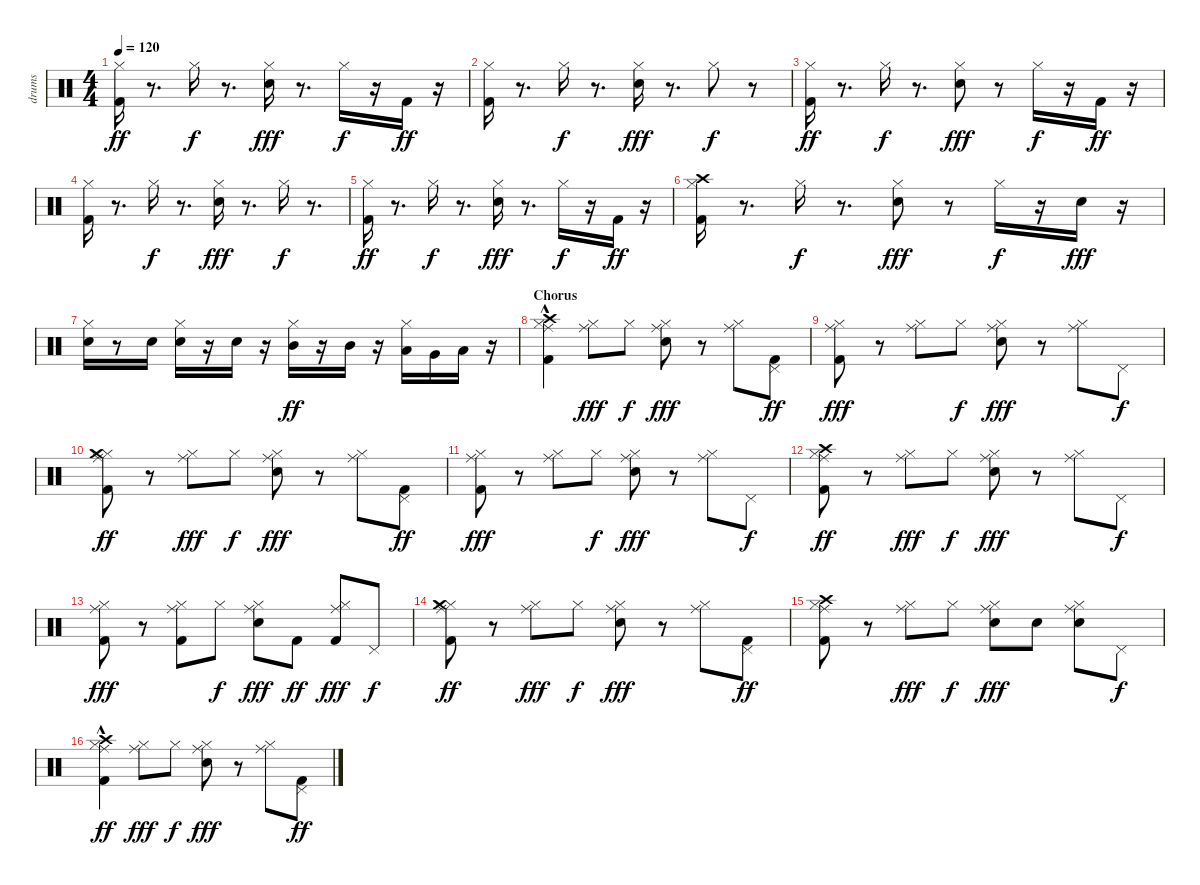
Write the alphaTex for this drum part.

\track ("drums" "drums") {instrument percussion}
\staff {score}
\articulation defaults
\ts (4 4)
\tempo 120
\clef neutral
\ks c
("Kick (hit) 2" "Hi-Hat (closed)").16{dy ff} r.8{d} "Hi-Hat (closed)".16{dy f} r.8{d} ("Snare (hit) 2" "Hi-Hat (closed)").16{dy fff} r.8{d} "Hi-Hat (closed)".16{dy f} r.16 "Kick (hit) 2".16{dy ff} r.16 |
("Kick (hit) 2" "Hi-Hat (closed)").16 r.8{d} "Hi-Hat (closed)".16{dy f} r.8{d} ("Snare (hit) 2" "Hi-Hat (closed)").16{dy fff} r.8{d} "Hi-Hat (closed)".8{dy f} r.8 |
("Kick (hit) 2" "Hi-Hat (closed)").16{dy ff} r.8{d} "Hi-Hat (closed)".16{dy f} r.8{d} ("Snare (hit) 2" "Hi-Hat (closed)").8{dy fff} r.8 "Hi-Hat (closed)".16{dy f} r.16 "Kick (hit) 2".16{dy ff} r.16 |
("Kick (hit) 2" "Hi-Hat (closed)").16 r.8{d} "Hi-Hat (closed)".16{dy f} r.8{d} ("Snare (hit) 2" "Hi-Hat (closed)").16{dy fff} r.8{d} "Hi-Hat (closed)".16{dy f} r.8{d} |
("Kick (hit) 2" "Hi-Hat (closed)").16{dy ff} r.8{d} "Hi-Hat (closed)".16{dy f} r.8{d} ("Snare (hit) 2" "Hi-Hat (closed)").16{dy fff} r.8{d} "Hi-Hat (closed)".16{dy f} r.16 "Kick (hit) 2".16{dy ff} r.16 |
("Kick (hit) 2" "Hi-Hat (closed)" "Crash high (hit)").16 r.8{d} "Hi-Hat (closed)".16{dy f} r.8{d} ("Snare (hit) 2" "Hi-Hat (closed)").8{dy fff} r.8 "Hi-Hat (closed)".16{dy f} r.16 "Snare (hit) 2".16{dy fff} r.16 |
("Snare (hit) 2" "Hi-Hat (closed)").16 r.8 "Snare (hit) 2".16 ("Snare (hit) 2" "Hi-Hat (closed)").16 r.16 "Snare (hit) 2".16 r.16 ("Hi-Hat (closed)" "Mid Tom (hit)").16{dy ff} r.16 "Mid Tom (hit)".16 r.16 ("Hi-Hat (closed)" "Low Tom (hit)").16 "Very Low Tom (hit)".16 "Low Floor Tom (hit)".16 r.16 |
\section ("" "Chorus")
("Kick (hit) 2" "Hi-Hat (closed)" "Ride (middle)" "Crash high (hit)"{hac}).4 ("Hi-Hat (closed)" "Ride (middle)").8{dy fff} "Hi-Hat (closed)".8{dy f} ("Snare (hit) 2" "Hi-Hat (closed)" "Ride (middle)").8{dy fff} r.8 ("Hi-Hat (closed)" "Ride (middle)").8 ("Kick (hit) 2" "Pedal Hi-Hat (hit)").8{dy ff} |
("Kick (hit) 2" "Hi-Hat (closed)" "Ride (middle)").8{dy fff} r.8 ("Hi-Hat (closed)" "Ride (middle)").8 "Hi-Hat (closed)".8{dy f} ("Snare (hit) 2" "Hi-Hat (closed)" "Ride (middle)").8{dy fff} r.8 ("Hi-Hat (closed)" "Ride (middle)").8 "Pedal Hi-Hat (hit)".8{dy f} |
("Kick (hit) 2" "Hi-Hat (closed)" "Ride (middle)" "Crash medium (hit)").8{dy ff} r.8 ("Hi-Hat (closed)" "Ride (middle)").8{dy fff} "Hi-Hat (closed)".8{dy f} ("Snare (hit) 2" "Hi-Hat (closed)" "Ride (middle)").8{dy fff} r.8 ("Hi-Hat (closed)" "Ride (middle)").8 ("Kick (hit) 2" "Pedal Hi-Hat (hit)").8{dy ff} |
("Kick (hit) 2" "Hi-Hat (closed)" "Ride (middle)").8{dy fff} r.8 ("Hi-Hat (closed)" "Ride (middle)").8 "Hi-Hat (closed)".8{dy f} ("Snare (hit) 2" "Hi-Hat (closed)" "Ride (middle)").8{dy fff} r.8 ("Hi-Hat (closed)" "Ride (middle)").8 "Pedal Hi-Hat (hit)".8{dy f} |
("Kick (hit) 2" "Hi-Hat (closed)" "Ride (middle)" "Crash high (hit)").8{dy ff} r.8 ("Hi-Hat (closed)" "Ride (middle)").8{dy fff} "Hi-Hat (closed)".8{dy f} ("Snare (hit) 2" "Hi-Hat (closed)" "Ride (middle)").8{dy fff} r.8 ("Hi-Hat (closed)" "Ride (middle)").8 "Pedal Hi-Hat (hit)".8{dy f} |
("Kick (hit) 2" "Hi-Hat (closed)" "Ride (middle)").8{dy fff} r.8 ("Kick (hit) 2" "Hi-Hat (closed)" "Ride (middle)").8 "Hi-Hat (closed)".8{dy f} ("Snare (hit) 2" "Hi-Hat (closed)" "Ride (middle)").8{dy fff} "Kick (hit) 2".8{dy ff} ("Kick (hit) 2" "Hi-Hat (closed)" "Ride (middle)").8{dy fff} "Pedal Hi-Hat (hit)".8{dy f} |
("Kick (hit) 2" "Hi-Hat (closed)" "Ride (middle)" "Crash medium (hit)").8{dy ff} r.8 ("Hi-Hat (closed)" "Ride (middle)").8{dy fff} "Hi-Hat (closed)".8{dy f} ("Snare (hit) 2" "Hi-Hat (closed)" "Ride (middle)").8{dy fff} r.8 ("Hi-Hat (closed)" "Ride (middle)").8 ("Kick (hit) 2" "Pedal Hi-Hat (hit)").8{dy ff} |
("Kick (hit) 2" "Hi-Hat (closed)" "Ride (middle)" "Crash high (hit)").8 r.8 ("Hi-Hat (closed)" "Ride (middle)").8{dy fff} "Hi-Hat (closed)".8{dy f} ("Snare (hit) 2" "Hi-Hat (closed)" "Ride (middle)").8{dy fff} "Snare (hit) 2".8 ("Snare (hit) 2" "Hi-Hat (closed)" "Ride (middle)").8 "Pedal Hi-Hat (hit)".8{dy f} |
("Kick (hit) 2" "Hi-Hat (closed)" "Ride (middle)" "Crash high (hit)"{hac}).4{dy ff} ("Hi-Hat (closed)" "Ride (middle)").8{dy fff} "Hi-Hat (closed)".8{dy f} ("Snare (hit) 2" "Hi-Hat (closed)" "Ride (middle)").8{dy fff} r.8 ("Hi-Hat (closed)" "Ride (middle)").8 ("Kick (hit) 2" "Pedal Hi-Hat (hit)").8{dy ff}
